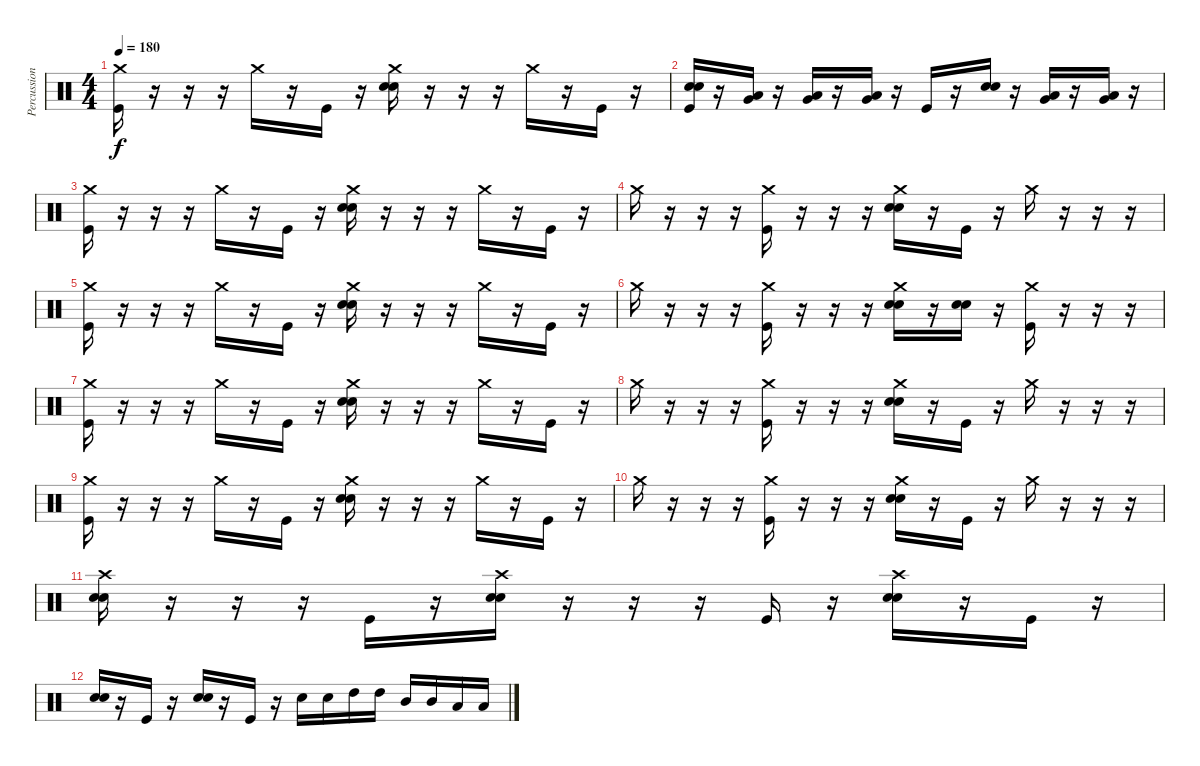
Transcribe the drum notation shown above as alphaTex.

\track ("Percussion" "Percussion") {instrument percussion}
\staff {score}
\articulation defaults
\ts (4 4)
\tempo 180
\clef neutral
\ks c
("Crash medium (hit)" "Kick (hit)").16{dy f} r.16 r.16 r.16 "Crash medium (hit)".16 r.16 "Kick (hit)".16 r.16 ("Crash medium (hit)" "Snare (hit) 2" "Electric Snare (hit)").16 r.16 r.16 r.16 "Crash medium (hit)".16 r.16 "Kick (hit)".16 r.16 |
("Snare (hit) 2" "Electric Snare (hit)" "Kick (hit)").16 r.16 ("Low Tom (hit)" "Very Low Tom (hit)").16 r.16 ("Low Tom (hit)" "Very Low Tom (hit)").16 r.16 ("Low Tom (hit)" "Very Low Tom (hit)").16 r.16 "Kick (hit)".16 r.16 ("Snare (hit) 2" "Electric Snare (hit)").16 r.16 ("Low Tom (hit)" "Very Low Tom (hit)").16 r.16 ("Low Tom (hit)" "Very Low Tom (hit)").16 r.16 |
("Crash medium (hit)" "Kick (hit)").16 r.16 r.16 r.16 "Crash medium (hit)".16 r.16 "Kick (hit)".16 r.16 ("Crash medium (hit)" "Snare (hit) 2" "Electric Snare (hit)").16 r.16 r.16 r.16 "Crash medium (hit)".16 r.16 "Kick (hit)".16 r.16 |
"Crash medium (hit)".16 r.16 r.16 r.16 ("Crash medium (hit)" "Kick (hit)").16 r.16 r.16 r.16 ("Crash medium (hit)" "Snare (hit) 2" "Electric Snare (hit)").16 r.16 "Kick (hit)".16 r.16 "Crash medium (hit)".16 r.16 r.16 r.16 |
("Crash medium (hit)" "Kick (hit)").16 r.16 r.16 r.16 "Crash medium (hit)".16 r.16 "Kick (hit)".16 r.16 ("Crash medium (hit)" "Snare (hit) 2" "Electric Snare (hit)").16 r.16 r.16 r.16 "Crash medium (hit)".16 r.16 "Kick (hit)".16 r.16 |
"Crash medium (hit)".16 r.16 r.16 r.16 ("Crash medium (hit)" "Kick (hit)").16 r.16 r.16 r.16 ("Crash medium (hit)" "Snare (hit) 2" "Electric Snare (hit)").16 r.16 ("Snare (hit) 2" "Electric Snare (hit)").16 r.16 ("Crash medium (hit)" "Kick (hit)").16 r.16 r.16 r.16 |
("Crash medium (hit)" "Kick (hit)").16 r.16 r.16 r.16 "Crash medium (hit)".16 r.16 "Kick (hit)".16 r.16 ("Crash medium (hit)" "Snare (hit) 2" "Electric Snare (hit)").16 r.16 r.16 r.16 "Crash medium (hit)".16 r.16 "Kick (hit)".16 r.16 |
"Crash medium (hit)".16 r.16 r.16 r.16 ("Crash medium (hit)" "Kick (hit)").16 r.16 r.16 r.16 ("Crash medium (hit)" "Snare (hit) 2" "Electric Snare (hit)").16 r.16 "Kick (hit)".16 r.16 "Crash medium (hit)".16 r.16 r.16 r.16 |
("Crash medium (hit)" "Kick (hit)").16 r.16 r.16 r.16 "Crash medium (hit)".16 r.16 "Kick (hit)".16 r.16 ("Crash medium (hit)" "Snare (hit) 2" "Electric Snare (hit)").16 r.16 r.16 r.16 "Crash medium (hit)".16 r.16 "Kick (hit)".16 r.16 |
"Crash medium (hit)".16 r.16 r.16 r.16 ("Crash medium (hit)" "Kick (hit)").16 r.16 r.16 r.16 ("Crash medium (hit)" "Snare (hit) 2" "Electric Snare (hit)").16 r.16 "Kick (hit)".16 r.16 "Crash medium (hit)".16 r.16 r.16 r.16 |
("Crash high (hit)" "Snare (hit) 2" "Electric Snare (hit)").16 r.16 r.16 r.16 "Kick (hit)".16 r.16 ("Crash high (hit)" "Snare (hit) 2" "Electric Snare (hit)").16 r.16 r.16 r.16 "Kick (hit)".16 r.16 ("Crash high (hit)" "Snare (hit) 2" "Electric Snare (hit)").16 r.16 "Kick (hit)".16 r.16 |
("Snare (hit) 2" "Electric Snare (hit)").16 r.16 "Kick (hit)".16 r.16 ("Snare (hit) 2" "Electric Snare (hit)").16 r.16 "Kick (hit)".16 r.16 "Snare (hit) 2".16 "Snare (hit) 2".16 "High Tom (hit)".16 "High Tom (hit)".16 "Mid Tom (hit)".16 "Mid Tom (hit)".16 "Low Tom (hit)".16 "Low Tom (hit)".16
